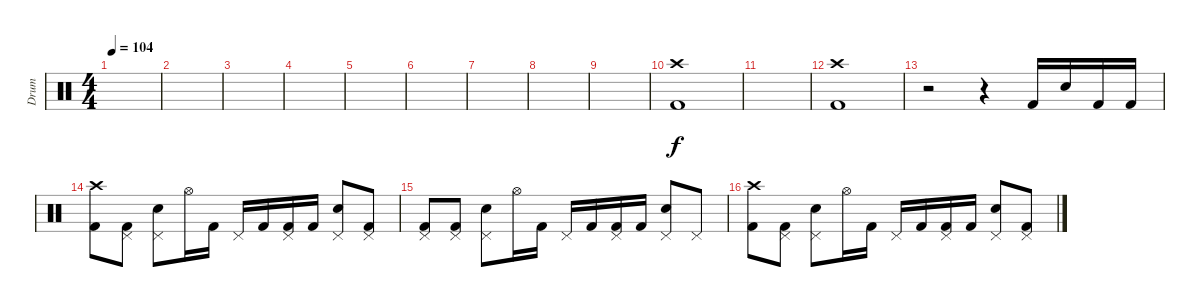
\track ("Drum" "Drum") {instrument percussion}
\staff {score}
\articulation defaults
\ts (4 4)
\tempo 104
\clef neutral
\ks c
|
|
|
|
|
|
|
|
|
("Crash high (hit)" "Kick (hit) 2").1 |
|
("Crash high (hit)" "Kick (hit) 2").1 |
r.2 r.4 "Kick (hit) 2".16 "Snare (hit) 2".16 "Kick (hit) 2".16 "Kick (hit) 2".16 |
("Crash high (hit)" "Kick (hit) 2").8 ("Pedal Hi-Hat (hit)" "Kick (hit) 2").8 ("Pedal Hi-Hat (hit)" "Snare (hit) 2").8 "Hi-Hat (open)".16 "Kick (hit) 2".16 "Pedal Hi-Hat (hit)".16 "Kick (hit) 2".16 ("Pedal Hi-Hat (hit)" "Kick (hit) 2").16 "Kick (hit) 2".16 ("Pedal Hi-Hat (hit)" "Snare (hit) 2").8 ("Pedal Hi-Hat (hit)" "Kick (hit) 2").8 |
("Pedal Hi-Hat (hit)" "Kick (hit) 2").8 ("Pedal Hi-Hat (hit)" "Kick (hit) 2").8 ("Pedal Hi-Hat (hit)" "Snare (hit) 2").8 "Hi-Hat (open)".16 "Kick (hit) 2".16 "Pedal Hi-Hat (hit)".16 "Kick (hit) 2".16 ("Pedal Hi-Hat (hit)" "Kick (hit) 2").16 "Kick (hit) 2".16 ("Pedal Hi-Hat (hit)" "Snare (hit) 2").8 "Pedal Hi-Hat (hit)".8 |
("Crash high (hit)" "Kick (hit) 2").8 ("Pedal Hi-Hat (hit)" "Kick (hit) 2").8 ("Pedal Hi-Hat (hit)" "Snare (hit) 2").8 "Hi-Hat (open)".16 "Kick (hit) 2".16 "Pedal Hi-Hat (hit)".16 "Kick (hit) 2".16 ("Pedal Hi-Hat (hit)" "Kick (hit) 2").16 "Kick (hit) 2".16 ("Pedal Hi-Hat (hit)" "Snare (hit) 2").8 ("Pedal Hi-Hat (hit)" "Kick (hit) 2").8
